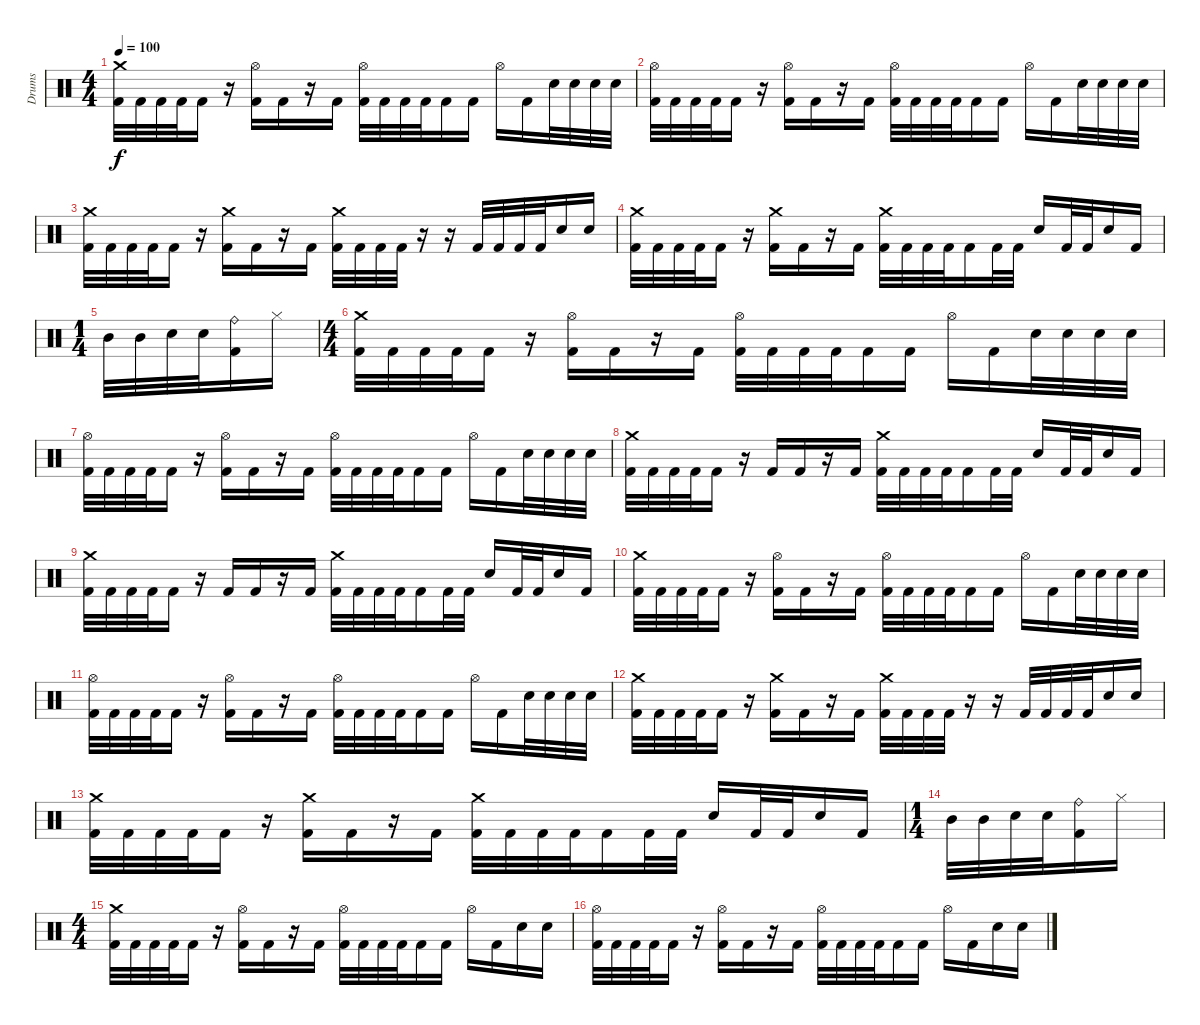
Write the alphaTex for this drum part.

\track ("Drums" "Drums") {instrument percussion}
\staff {score}
\articulation defaults
\ts (4 4)
\tempo 100
\clef neutral
\ks c
("Kick (hit) 2" "Crash medium (hit)").32{dy f} "Kick (hit) 2".32 "Kick (hit) 2".32 "Kick (hit) 2".32 "Kick (hit) 2".16 r.16 ("Kick (hit) 2" "Hi-Hat (open)").16 "Kick (hit) 2".16 r.16 "Kick (hit) 2".16 ("Kick (hit) 2" "Hi-Hat (open)").32 "Kick (hit) 2".32 "Kick (hit) 2".32 "Kick (hit) 2".32 "Kick (hit) 2".16 "Kick (hit) 2".16 "Hi-Hat (open)".16 "Kick (hit) 2".16 "Electric Snare (hit)".32 "Electric Snare (hit)".32 "Electric Snare (hit)".32 "Electric Snare (hit)".32 |
("Kick (hit) 2" "Hi-Hat (open)").32 "Kick (hit) 2".32 "Kick (hit) 2".32 "Kick (hit) 2".32 "Kick (hit) 2".16 r.16 ("Kick (hit) 2" "Hi-Hat (open)").16 "Kick (hit) 2".16 r.16 "Kick (hit) 2".16 ("Kick (hit) 2" "Hi-Hat (open)").32 "Kick (hit) 2".32 "Kick (hit) 2".32 "Kick (hit) 2".32 "Kick (hit) 2".16 "Kick (hit) 2".16 "Hi-Hat (open)".16 "Kick (hit) 2".16 "Electric Snare (hit)".32 "Electric Snare (hit)".32 "Electric Snare (hit)".32 "Electric Snare (hit)".32 |
("Kick (hit) 2" "Crash medium (hit)").32 "Kick (hit) 2".32 "Kick (hit) 2".32 "Kick (hit) 2".32 "Kick (hit) 2".16 r.16 ("Kick (hit) 2" "Crash medium (hit)").16 "Kick (hit) 2".16 r.16 "Kick (hit) 2".16 ("Kick (hit) 2" "Crash medium (hit)").32 "Kick (hit) 2".32 "Kick (hit) 2".32 "Kick (hit) 2".32 r.16 r.16 "Kick (hit) 2".32 "Kick (hit) 2".32 "Kick (hit) 2".32 "Kick (hit) 2".32 "Electric Snare (hit)".16 "Electric Snare (hit)".16 |
("Kick (hit) 2" "Crash medium (hit)").32 "Kick (hit) 2".32 "Kick (hit) 2".32 "Kick (hit) 2".32 "Kick (hit) 2".16 r.16 ("Kick (hit) 2" "Crash medium (hit)").16 "Kick (hit) 2".16 r.16 "Kick (hit) 2".16 ("Kick (hit) 2" "Crash medium (hit)").32 "Kick (hit) 2".32 "Kick (hit) 2".32 "Kick (hit) 2".32 "Kick (hit) 2".16 "Kick (hit) 2".32 "Kick (hit) 2".32 "Electric Snare (hit)".16 "Kick (hit) 2".32 "Kick (hit) 2".32 "Electric Snare (hit)".16 "Kick (hit) 2".16 |
\ts (1 4)
"Mid Tom (hit)".32 "Mid Tom (hit)".32 "Electric Snare (hit)".32 "Electric Snare (hit)".32 ("Ride (bell)" "Kick (hit) 2").16 "Hi-Hat (closed)".16 |
\ts (4 4)
("Kick (hit) 2" "Crash medium (hit)").32 "Kick (hit) 2".32 "Kick (hit) 2".32 "Kick (hit) 2".32 "Kick (hit) 2".16 r.16 ("Kick (hit) 2" "Hi-Hat (open)").16 "Kick (hit) 2".16 r.16 "Kick (hit) 2".16 ("Kick (hit) 2" "Hi-Hat (open)").32 "Kick (hit) 2".32 "Kick (hit) 2".32 "Kick (hit) 2".32 "Kick (hit) 2".16 "Kick (hit) 2".16 "Hi-Hat (open)".16 "Kick (hit) 2".16 "Electric Snare (hit)".32 "Electric Snare (hit)".32 "Electric Snare (hit)".32 "Electric Snare (hit)".32 |
("Kick (hit) 2" "Hi-Hat (open)").32 "Kick (hit) 2".32 "Kick (hit) 2".32 "Kick (hit) 2".32 "Kick (hit) 2".16 r.16 ("Kick (hit) 2" "Hi-Hat (open)").16 "Kick (hit) 2".16 r.16 "Kick (hit) 2".16 ("Kick (hit) 2" "Hi-Hat (open)").32 "Kick (hit) 2".32 "Kick (hit) 2".32 "Kick (hit) 2".32 "Kick (hit) 2".16 "Kick (hit) 2".16 "Hi-Hat (open)".16 "Kick (hit) 2".16 "Electric Snare (hit)".32 "Electric Snare (hit)".32 "Electric Snare (hit)".32 "Electric Snare (hit)".32 |
("Kick (hit) 2" "Crash medium (hit)").32 "Kick (hit) 2".32 "Kick (hit) 2".32 "Kick (hit) 2".32 "Kick (hit) 2".16 r.16 "Kick (hit) 2".16 "Kick (hit) 2".16 r.16 "Kick (hit) 2".16 ("Kick (hit) 2" "Crash medium (hit)").32 "Kick (hit) 2".32 "Kick (hit) 2".32 "Kick (hit) 2".32 "Kick (hit) 2".16 "Kick (hit) 2".32 "Kick (hit) 2".32 "Electric Snare (hit)".16 "Kick (hit) 2".32 "Kick (hit) 2".32 "Electric Snare (hit)".16 "Kick (hit) 2".16 |
("Kick (hit) 2" "Crash medium (hit)").32 "Kick (hit) 2".32 "Kick (hit) 2".32 "Kick (hit) 2".32 "Kick (hit) 2".16 r.16 "Kick (hit) 2".16 "Kick (hit) 2".16 r.16 "Kick (hit) 2".16 ("Kick (hit) 2" "Crash medium (hit)").32 "Kick (hit) 2".32 "Kick (hit) 2".32 "Kick (hit) 2".32 "Kick (hit) 2".16 "Kick (hit) 2".32 "Kick (hit) 2".32 "Electric Snare (hit)".16 "Kick (hit) 2".32 "Kick (hit) 2".32 "Electric Snare (hit)".16 "Kick (hit) 2".16 |
("Kick (hit) 2" "Crash medium (hit)").32 "Kick (hit) 2".32 "Kick (hit) 2".32 "Kick (hit) 2".32 "Kick (hit) 2".16 r.16 ("Kick (hit) 2" "Hi-Hat (open)").16 "Kick (hit) 2".16 r.16 "Kick (hit) 2".16 ("Kick (hit) 2" "Hi-Hat (open)").32 "Kick (hit) 2".32 "Kick (hit) 2".32 "Kick (hit) 2".32 "Kick (hit) 2".16 "Kick (hit) 2".16 "Hi-Hat (open)".16 "Kick (hit) 2".16 "Electric Snare (hit)".32 "Electric Snare (hit)".32 "Electric Snare (hit)".32 "Electric Snare (hit)".32 |
("Kick (hit) 2" "Hi-Hat (open)").32 "Kick (hit) 2".32 "Kick (hit) 2".32 "Kick (hit) 2".32 "Kick (hit) 2".16 r.16 ("Kick (hit) 2" "Hi-Hat (open)").16 "Kick (hit) 2".16 r.16 "Kick (hit) 2".16 ("Kick (hit) 2" "Hi-Hat (open)").32 "Kick (hit) 2".32 "Kick (hit) 2".32 "Kick (hit) 2".32 "Kick (hit) 2".16 "Kick (hit) 2".16 "Hi-Hat (open)".16 "Kick (hit) 2".16 "Electric Snare (hit)".32 "Electric Snare (hit)".32 "Electric Snare (hit)".32 "Electric Snare (hit)".32 |
("Kick (hit) 2" "Crash medium (hit)").32 "Kick (hit) 2".32 "Kick (hit) 2".32 "Kick (hit) 2".32 "Kick (hit) 2".16 r.16 ("Kick (hit) 2" "Crash medium (hit)").16 "Kick (hit) 2".16 r.16 "Kick (hit) 2".16 ("Kick (hit) 2" "Crash medium (hit)").32 "Kick (hit) 2".32 "Kick (hit) 2".32 "Kick (hit) 2".32 r.16 r.16 "Kick (hit) 2".32 "Kick (hit) 2".32 "Kick (hit) 2".32 "Kick (hit) 2".32 "Electric Snare (hit)".16 "Electric Snare (hit)".16 |
("Kick (hit) 2" "Crash medium (hit)").32 "Kick (hit) 2".32 "Kick (hit) 2".32 "Kick (hit) 2".32 "Kick (hit) 2".16 r.16 ("Kick (hit) 2" "Crash medium (hit)").16 "Kick (hit) 2".16 r.16 "Kick (hit) 2".16 ("Kick (hit) 2" "Crash medium (hit)").32 "Kick (hit) 2".32 "Kick (hit) 2".32 "Kick (hit) 2".32 "Kick (hit) 2".16 "Kick (hit) 2".32 "Kick (hit) 2".32 "Electric Snare (hit)".16 "Kick (hit) 2".32 "Kick (hit) 2".32 "Electric Snare (hit)".16 "Kick (hit) 2".16 |
\ts (1 4)
"Mid Tom (hit)".32 "Mid Tom (hit)".32 "Electric Snare (hit)".32 "Electric Snare (hit)".32 ("Ride (bell)" "Kick (hit) 2").16 "Hi-Hat (closed)".16 |
\ts (4 4)
("Kick (hit) 2" "Crash medium (hit)").32 "Kick (hit) 2".32 "Kick (hit) 2".32 "Kick (hit) 2".32 "Kick (hit) 2".16 r.16 ("Kick (hit) 2" "Hi-Hat (open)").16 "Kick (hit) 2".16 r.16 "Kick (hit) 2".16 ("Kick (hit) 2" "Hi-Hat (open)").32 "Kick (hit) 2".32 "Kick (hit) 2".32 "Kick (hit) 2".32 "Kick (hit) 2".16 "Kick (hit) 2".16 "Hi-Hat (open)".16 "Kick (hit) 2".16 "Electric Snare (hit)".16 "Electric Snare (hit)".16 |
("Kick (hit) 2" "Hi-Hat (open)").32 "Kick (hit) 2".32 "Kick (hit) 2".32 "Kick (hit) 2".32 "Kick (hit) 2".16 r.16 ("Kick (hit) 2" "Hi-Hat (open)").16 "Kick (hit) 2".16 r.16 "Kick (hit) 2".16 ("Kick (hit) 2" "Hi-Hat (open)").32 "Kick (hit) 2".32 "Kick (hit) 2".32 "Kick (hit) 2".32 "Kick (hit) 2".16 "Kick (hit) 2".16 "Hi-Hat (open)".16 "Kick (hit) 2".16 "Electric Snare (hit)".16 "Electric Snare (hit)".16
